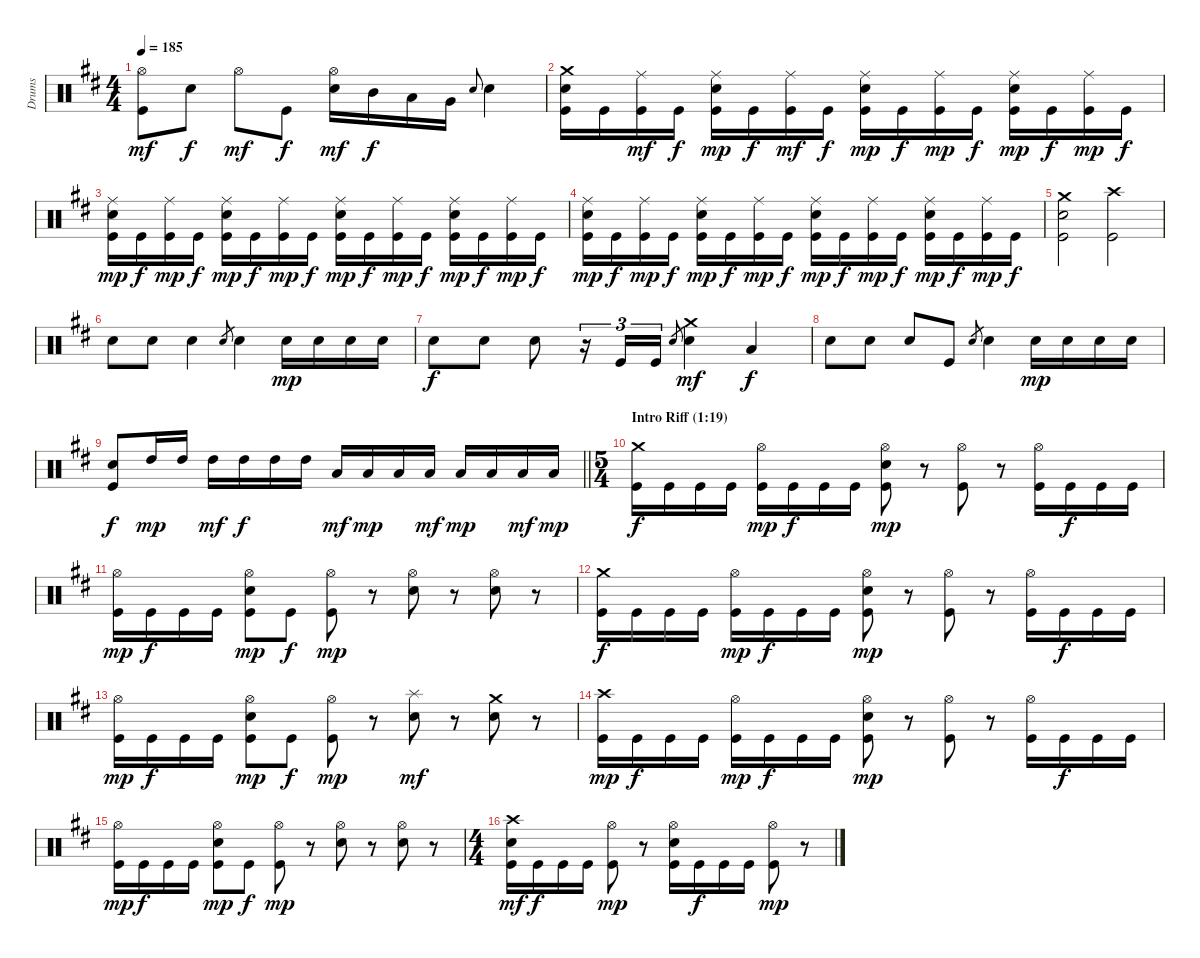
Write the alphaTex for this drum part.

\track ("Drums" "Drums") {instrument percussion}
\staff {score}
\articulation defaults
\ts (4 4)
\tempo 185
\clef neutral
\ks bminor
("Hi-Hat (open)" "Kick (hit)").8{dy mf} "Snare (hit) 2".8{dy f} "Hi-Hat (open)".8{dy mf} "Kick (hit)".8{dy f} ("Hi-Hat (open)" "Snare (hit) 2").16{dy mf} "Mid Tom (hit)".16{dy f} "Low Tom (hit)".16 "Very Low Tom (hit)".16 "Snare (hit) 2".8{gr onbeat} "Snare (hit) 2".4 |
("Crash medium (hit)" "Snare (hit) 2" "Kick (hit)").16 "Kick (hit)".16 ("Ride (middle)" "Kick (hit)").16{dy mf} "Kick (hit)".16{dy f} ("Ride (middle)" "Snare (hit) 2" "Kick (hit)").16{dy mp} "Kick (hit)".16{dy f} ("Ride (middle)" "Kick (hit)").16{dy mf} "Kick (hit)".16{dy f} ("Ride (middle)" "Snare (hit) 2" "Kick (hit)").16{dy mp} "Kick (hit)".16{dy f} ("Ride (middle)" "Kick (hit)").16{dy mp} "Kick (hit)".16{dy f} ("Ride (middle)" "Snare (hit) 2" "Kick (hit)").16{dy mp} "Kick (hit)".16{dy f} ("Ride (middle)" "Kick (hit)").16{dy mp} "Kick (hit)".16{dy f} |
("Ride (middle)" "Snare (hit) 2" "Kick (hit)").16{dy mp} "Kick (hit)".16{dy f} ("Ride (middle)" "Kick (hit)").16{dy mp} "Kick (hit)".16{dy f} ("Ride (middle)" "Snare (hit) 2" "Kick (hit)").16{dy mp} "Kick (hit)".16{dy f} ("Ride (middle)" "Kick (hit)").16{dy mp} "Kick (hit)".16{dy f} ("Ride (middle)" "Snare (hit) 2" "Kick (hit)").16{dy mp} "Kick (hit)".16{dy f} ("Ride (middle)" "Kick (hit)").16{dy mp} "Kick (hit)".16{dy f} ("Ride (middle)" "Snare (hit) 2" "Kick (hit)").16{dy mp} "Kick (hit)".16{dy f} ("Ride (middle)" "Kick (hit)").16{dy mp} "Kick (hit)".16{dy f} |
("Ride (middle)" "Snare (hit) 2" "Kick (hit)").16{dy mp} "Kick (hit)".16{dy f} ("Ride (middle)" "Kick (hit)").16{dy mp} "Kick (hit)".16{dy f} ("Ride (middle)" "Snare (hit) 2" "Kick (hit)").16{dy mp} "Kick (hit)".16{dy f} ("Ride (middle)" "Kick (hit)").16{dy mp} "Kick (hit)".16{dy f} ("Ride (middle)" "Snare (hit) 2" "Kick (hit)").16{dy mp} "Kick (hit)".16{dy f} ("Ride (middle)" "Kick (hit)").16{dy mp} "Kick (hit)".16{dy f} ("Ride (middle)" "Snare (hit) 2" "Kick (hit)").16{dy mp} "Kick (hit)".16{dy f} ("Ride (middle)" "Kick (hit)").16{dy mp} "Kick (hit)".16{dy f} |
("Crash medium (hit)" "Snare (hit) 2" "Kick (hit)").2 ("Crash high (hit)" "Kick (hit)").2 |
"Snare (hit) 2".8 "Snare (hit) 2".8 "Snare (hit) 2".4 "Snare (hit) 2".8{gr} "Snare (hit) 2".4 "Snare (hit) 2".16{dy mp} "Snare (hit) 2".16 "Snare (hit) 2".16 "Snare (hit) 2".16 |
"Snare (hit) 2".8{dy f} "Snare (hit) 2".8 "Snare (hit) 2".8 r.16{tu (3 2)} "Kick (hit)".16{tu (3 2)} "Kick (hit)".16{tu (3 2)} "Snare (hit) 2".8{gr} ("Crash medium (hit)" "Snare (hit) 2").4{dy mf} "Low Floor Tom (hit)".4{dy f} |
"Snare (hit) 2".8 "Snare (hit) 2".8 "Snare (hit) 2".8 "Kick (hit)".8 "Snare (hit) 2".8{gr} "Snare (hit) 2".4 "Snare (hit) 2".16{dy mp} "Snare (hit) 2".16 "Snare (hit) 2".16 "Snare (hit) 2".16 |
\barLineRight lightlight
("Snare (hit) 2" "Kick (hit)").8{dy f} "High Tom (hit)".16{dy mp} "High Tom (hit)".16 "High Tom (hit)".16{dy mf} "High Tom (hit)".16{dy f} "High Tom (hit)".16 "High Tom (hit)".16 "Low Tom (hit)".16{dy mf} "Low Tom (hit)".16{dy mp} "Low Tom (hit)".16 "Low Tom (hit)".16{dy mf} "Low Floor Tom (hit)".16{dy mp} "Low Floor Tom (hit)".16 "Low Floor Tom (hit)".16{dy mf} "Low Floor Tom (hit)".16{dy mp} |
\ts (5 4)
\section ("" "Intro Riff (1:19)")
("Crash medium (hit)" "Kick (hit)").16{dy f} "Kick (hit)".16 "Kick (hit)".16 "Kick (hit)".16 ("Hi-Hat (open)" "Kick (hit)").16{dy mp} "Kick (hit)".16{dy f} "Kick (hit)".16 "Kick (hit)".16 ("Hi-Hat (open)" "Snare (hit) 2" "Kick (hit)").8{dy mp} r.8 ("Hi-Hat (open)" "Kick (hit)").8 r.8 ("Hi-Hat (open)" "Kick (hit)").16 "Kick (hit)".16{dy f} "Kick (hit)".16 "Kick (hit)".16 |
("Hi-Hat (open)" "Kick (hit)").16{dy mp} "Kick (hit)".16{dy f} "Kick (hit)".16 "Kick (hit)".16 ("Hi-Hat (open)" "Snare (hit) 2" "Kick (hit)").8{dy mp} "Kick (hit)".8{dy f} ("Hi-Hat (open)" "Kick (hit)").8{dy mp} r.8 ("Hi-Hat (open)" "Snare (hit) 2").8 r.8 ("Hi-Hat (open)" "Snare (hit) 2").8 r.8 |
("Crash medium (hit)" "Kick (hit)").16{dy f} "Kick (hit)".16 "Kick (hit)".16 "Kick (hit)".16 ("Hi-Hat (open)" "Kick (hit)").16{dy mp} "Kick (hit)".16{dy f} "Kick (hit)".16 "Kick (hit)".16 ("Hi-Hat (open)" "Snare (hit) 2" "Kick (hit)").8{dy mp} r.8 ("Hi-Hat (open)" "Kick (hit)").8 r.8 ("Hi-Hat (open)" "Kick (hit)").16 "Kick (hit)".16{dy f} "Kick (hit)".16 "Kick (hit)".16 |
("Hi-Hat (open)" "Kick (hit)").16{dy mp} "Kick (hit)".16{dy f} "Kick (hit)".16 "Kick (hit)".16 ("Hi-Hat (open)" "Snare (hit) 2" "Kick (hit)").8{dy mp} "Kick (hit)".8{dy f} ("Hi-Hat (open)" "Kick (hit)").8{dy mp} r.8 ("Splash (hit)" "Snare (hit) 2").8{dy mf} r.8 ("Crash medium (hit)" "Snare (hit) 2").8 r.8 |
("Crash high (hit)" "Kick (hit)").16{dy mp} "Kick (hit)".16{dy f} "Kick (hit)".16 "Kick (hit)".16 ("Hi-Hat (open)" "Kick (hit)").16{dy mp} "Kick (hit)".16{dy f} "Kick (hit)".16 "Kick (hit)".16 ("Hi-Hat (open)" "Snare (hit) 2" "Kick (hit)").8{dy mp} r.8 ("Hi-Hat (open)" "Kick (hit)").8 r.8 ("Hi-Hat (open)" "Kick (hit)").16 "Kick (hit)".16{dy f} "Kick (hit)".16 "Kick (hit)".16 |
("Hi-Hat (open)" "Kick (hit)").16{dy mp} "Kick (hit)".16{dy f} "Kick (hit)".16 "Kick (hit)".16 ("Hi-Hat (open)" "Snare (hit) 2" "Kick (hit)").8{dy mp} "Kick (hit)".8{dy f} ("Hi-Hat (open)" "Kick (hit)").8{dy mp} r.8 ("Hi-Hat (open)" "Snare (hit) 2").8 r.8 ("Hi-Hat (open)" "Snare (hit) 2").8 r.8 |
\ts (4 4)
("Crash high (hit)" "Snare (hit) 2" "Kick (hit)").16{dy mf} "Kick (hit)".16{dy f} "Kick (hit)".16 "Kick (hit)".16 ("Hi-Hat (open)" "Kick (hit)").8{dy mp} r.8 ("Hi-Hat (open)" "Snare (hit) 2" "Kick (hit)").16 "Kick (hit)".16{dy f} "Kick (hit)".16 "Kick (hit)".16 ("Hi-Hat (open)" "Kick (hit)").8{dy mp} r.8
